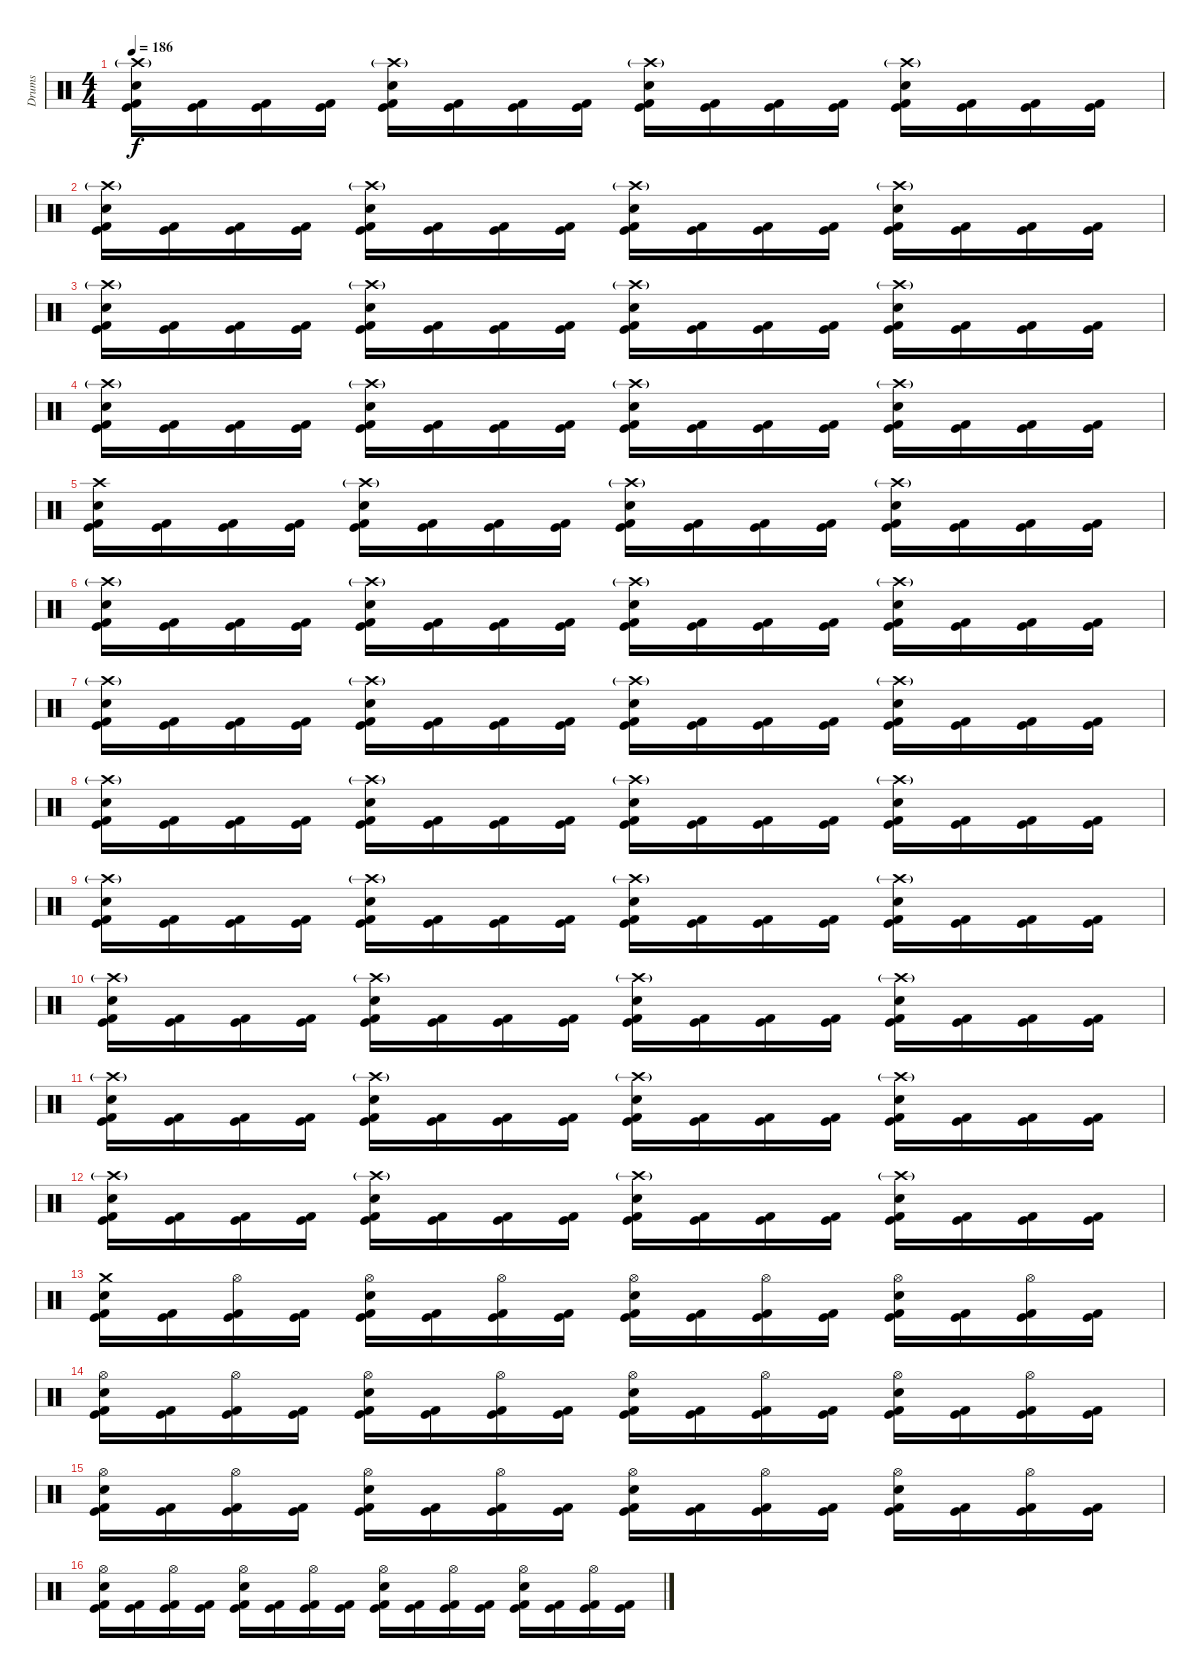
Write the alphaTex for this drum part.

\track ("Drums" "Drums") {instrument percussion}
\staff {score}
\articulation defaults
\ts (4 4)
\tempo 186
\clef neutral
\ks c
("Crash high (hit)"{g} "Electric Snare (hit)" "Kick (hit)" "Kick (hit) 2").16{dy f} ("Kick (hit)" "Kick (hit) 2").16 ("Kick (hit)" "Kick (hit) 2").16 ("Kick (hit)" "Kick (hit) 2").16 ("Crash high (hit)"{g} "Electric Snare (hit)" "Kick (hit)" "Kick (hit) 2").16 ("Kick (hit)" "Kick (hit) 2").16 ("Kick (hit)" "Kick (hit) 2").16 ("Kick (hit)" "Kick (hit) 2").16 ("Crash high (hit)"{g} "Electric Snare (hit)" "Kick (hit)" "Kick (hit) 2").16 ("Kick (hit)" "Kick (hit) 2").16 ("Kick (hit)" "Kick (hit) 2").16 ("Kick (hit)" "Kick (hit) 2").16 ("Crash high (hit)"{g} "Electric Snare (hit)" "Kick (hit)" "Kick (hit) 2").16 ("Kick (hit)" "Kick (hit) 2").16 ("Kick (hit)" "Kick (hit) 2").16 ("Kick (hit)" "Kick (hit) 2").16 |
("Crash high (hit)"{g} "Electric Snare (hit)" "Kick (hit)" "Kick (hit) 2").16 ("Kick (hit)" "Kick (hit) 2").16 ("Kick (hit)" "Kick (hit) 2").16 ("Kick (hit)" "Kick (hit) 2").16 ("Crash high (hit)"{g} "Electric Snare (hit)" "Kick (hit)" "Kick (hit) 2").16 ("Kick (hit)" "Kick (hit) 2").16 ("Kick (hit)" "Kick (hit) 2").16 ("Kick (hit)" "Kick (hit) 2").16 ("Crash high (hit)"{g} "Electric Snare (hit)" "Kick (hit)" "Kick (hit) 2").16 ("Kick (hit)" "Kick (hit) 2").16 ("Kick (hit)" "Kick (hit) 2").16 ("Kick (hit)" "Kick (hit) 2").16 ("Crash high (hit)"{g} "Electric Snare (hit)" "Kick (hit)" "Kick (hit) 2").16 ("Kick (hit)" "Kick (hit) 2").16 ("Kick (hit)" "Kick (hit) 2").16 ("Kick (hit)" "Kick (hit) 2").16 |
("Crash high (hit)"{g} "Electric Snare (hit)" "Kick (hit)" "Kick (hit) 2").16 ("Kick (hit)" "Kick (hit) 2").16 ("Kick (hit)" "Kick (hit) 2").16 ("Kick (hit)" "Kick (hit) 2").16 ("Crash high (hit)"{g} "Electric Snare (hit)" "Kick (hit)" "Kick (hit) 2").16 ("Kick (hit)" "Kick (hit) 2").16 ("Kick (hit)" "Kick (hit) 2").16 ("Kick (hit)" "Kick (hit) 2").16 ("Crash high (hit)"{g} "Electric Snare (hit)" "Kick (hit)" "Kick (hit) 2").16 ("Kick (hit)" "Kick (hit) 2").16 ("Kick (hit)" "Kick (hit) 2").16 ("Kick (hit)" "Kick (hit) 2").16 ("Crash high (hit)"{g} "Electric Snare (hit)" "Kick (hit)" "Kick (hit) 2").16 ("Kick (hit)" "Kick (hit) 2").16 ("Kick (hit)" "Kick (hit) 2").16 ("Kick (hit)" "Kick (hit) 2").16 |
("Crash high (hit)"{g} "Electric Snare (hit)" "Kick (hit)" "Kick (hit) 2").16 ("Kick (hit)" "Kick (hit) 2").16 ("Kick (hit)" "Kick (hit) 2").16 ("Kick (hit)" "Kick (hit) 2").16 ("Crash high (hit)"{g} "Electric Snare (hit)" "Kick (hit)" "Kick (hit) 2").16 ("Kick (hit)" "Kick (hit) 2").16 ("Kick (hit)" "Kick (hit) 2").16 ("Kick (hit)" "Kick (hit) 2").16 ("Crash high (hit)"{g} "Electric Snare (hit)" "Kick (hit)" "Kick (hit) 2").16 ("Kick (hit)" "Kick (hit) 2").16 ("Kick (hit)" "Kick (hit) 2").16 ("Kick (hit)" "Kick (hit) 2").16 ("Crash high (hit)"{g} "Electric Snare (hit)" "Kick (hit)" "Kick (hit) 2").16 ("Kick (hit)" "Kick (hit) 2").16 ("Kick (hit)" "Kick (hit) 2").16 ("Kick (hit)" "Kick (hit) 2").16 |
("Crash high (hit)" "Electric Snare (hit)" "Kick (hit)" "Kick (hit) 2").16 ("Kick (hit)" "Kick (hit) 2").16 ("Kick (hit)" "Kick (hit) 2").16 ("Kick (hit)" "Kick (hit) 2").16 ("Crash high (hit)"{g} "Electric Snare (hit)" "Kick (hit)" "Kick (hit) 2").16 ("Kick (hit)" "Kick (hit) 2").16 ("Kick (hit)" "Kick (hit) 2").16 ("Kick (hit)" "Kick (hit) 2").16 ("Crash high (hit)"{g} "Electric Snare (hit)" "Kick (hit)" "Kick (hit) 2").16 ("Kick (hit)" "Kick (hit) 2").16 ("Kick (hit)" "Kick (hit) 2").16 ("Kick (hit)" "Kick (hit) 2").16 ("Crash high (hit)"{g} "Electric Snare (hit)" "Kick (hit)" "Kick (hit) 2").16 ("Kick (hit)" "Kick (hit) 2").16 ("Kick (hit)" "Kick (hit) 2").16 ("Kick (hit)" "Kick (hit) 2").16 |
("Crash high (hit)"{g} "Electric Snare (hit)" "Kick (hit)" "Kick (hit) 2").16 ("Kick (hit)" "Kick (hit) 2").16 ("Kick (hit)" "Kick (hit) 2").16 ("Kick (hit)" "Kick (hit) 2").16 ("Crash high (hit)"{g} "Electric Snare (hit)" "Kick (hit)" "Kick (hit) 2").16 ("Kick (hit)" "Kick (hit) 2").16 ("Kick (hit)" "Kick (hit) 2").16 ("Kick (hit)" "Kick (hit) 2").16 ("Crash high (hit)"{g} "Electric Snare (hit)" "Kick (hit)" "Kick (hit) 2").16 ("Kick (hit)" "Kick (hit) 2").16 ("Kick (hit)" "Kick (hit) 2").16 ("Kick (hit)" "Kick (hit) 2").16 ("Crash high (hit)"{g} "Electric Snare (hit)" "Kick (hit)" "Kick (hit) 2").16 ("Kick (hit)" "Kick (hit) 2").16 ("Kick (hit)" "Kick (hit) 2").16 ("Kick (hit)" "Kick (hit) 2").16 |
("Crash high (hit)"{g} "Electric Snare (hit)" "Kick (hit)" "Kick (hit) 2").16 ("Kick (hit)" "Kick (hit) 2").16 ("Kick (hit)" "Kick (hit) 2").16 ("Kick (hit)" "Kick (hit) 2").16 ("Crash high (hit)"{g} "Electric Snare (hit)" "Kick (hit)" "Kick (hit) 2").16 ("Kick (hit)" "Kick (hit) 2").16 ("Kick (hit)" "Kick (hit) 2").16 ("Kick (hit)" "Kick (hit) 2").16 ("Crash high (hit)"{g} "Electric Snare (hit)" "Kick (hit)" "Kick (hit) 2").16 ("Kick (hit)" "Kick (hit) 2").16 ("Kick (hit)" "Kick (hit) 2").16 ("Kick (hit)" "Kick (hit) 2").16 ("Crash high (hit)"{g} "Electric Snare (hit)" "Kick (hit)" "Kick (hit) 2").16 ("Kick (hit)" "Kick (hit) 2").16 ("Kick (hit)" "Kick (hit) 2").16 ("Kick (hit)" "Kick (hit) 2").16 |
("Crash high (hit)"{g} "Electric Snare (hit)" "Kick (hit)" "Kick (hit) 2").16 ("Kick (hit)" "Kick (hit) 2").16 ("Kick (hit)" "Kick (hit) 2").16 ("Kick (hit)" "Kick (hit) 2").16 ("Crash high (hit)"{g} "Electric Snare (hit)" "Kick (hit)" "Kick (hit) 2").16 ("Kick (hit)" "Kick (hit) 2").16 ("Kick (hit)" "Kick (hit) 2").16 ("Kick (hit)" "Kick (hit) 2").16 ("Crash high (hit)"{g} "Electric Snare (hit)" "Kick (hit)" "Kick (hit) 2").16 ("Kick (hit)" "Kick (hit) 2").16 ("Kick (hit)" "Kick (hit) 2").16 ("Kick (hit)" "Kick (hit) 2").16 ("Crash high (hit)"{g} "Electric Snare (hit)" "Kick (hit)" "Kick (hit) 2").16 ("Kick (hit)" "Kick (hit) 2").16 ("Kick (hit)" "Kick (hit) 2").16 ("Kick (hit)" "Kick (hit) 2").16 |
("Crash high (hit)"{g} "Electric Snare (hit)" "Kick (hit)" "Kick (hit) 2").16 ("Kick (hit)" "Kick (hit) 2").16 ("Kick (hit)" "Kick (hit) 2").16 ("Kick (hit)" "Kick (hit) 2").16 ("Crash high (hit)"{g} "Electric Snare (hit)" "Kick (hit)" "Kick (hit) 2").16 ("Kick (hit)" "Kick (hit) 2").16 ("Kick (hit)" "Kick (hit) 2").16 ("Kick (hit)" "Kick (hit) 2").16 ("Crash high (hit)"{g} "Electric Snare (hit)" "Kick (hit)" "Kick (hit) 2").16 ("Kick (hit)" "Kick (hit) 2").16 ("Kick (hit)" "Kick (hit) 2").16 ("Kick (hit)" "Kick (hit) 2").16 ("Crash high (hit)"{g} "Electric Snare (hit)" "Kick (hit)" "Kick (hit) 2").16 ("Kick (hit)" "Kick (hit) 2").16 ("Kick (hit)" "Kick (hit) 2").16 ("Kick (hit)" "Kick (hit) 2").16 |
("Crash high (hit)"{g} "Electric Snare (hit)" "Kick (hit)" "Kick (hit) 2").16 ("Kick (hit)" "Kick (hit) 2").16 ("Kick (hit)" "Kick (hit) 2").16 ("Kick (hit)" "Kick (hit) 2").16 ("Crash high (hit)"{g} "Electric Snare (hit)" "Kick (hit)" "Kick (hit) 2").16 ("Kick (hit)" "Kick (hit) 2").16 ("Kick (hit)" "Kick (hit) 2").16 ("Kick (hit)" "Kick (hit) 2").16 ("Crash high (hit)"{g} "Electric Snare (hit)" "Kick (hit)" "Kick (hit) 2").16 ("Kick (hit)" "Kick (hit) 2").16 ("Kick (hit)" "Kick (hit) 2").16 ("Kick (hit)" "Kick (hit) 2").16 ("Crash high (hit)"{g} "Electric Snare (hit)" "Kick (hit)" "Kick (hit) 2").16 ("Kick (hit)" "Kick (hit) 2").16 ("Kick (hit)" "Kick (hit) 2").16 ("Kick (hit)" "Kick (hit) 2").16 |
("Crash high (hit)"{g} "Electric Snare (hit)" "Kick (hit)" "Kick (hit) 2").16 ("Kick (hit)" "Kick (hit) 2").16 ("Kick (hit)" "Kick (hit) 2").16 ("Kick (hit)" "Kick (hit) 2").16 ("Crash high (hit)"{g} "Electric Snare (hit)" "Kick (hit)" "Kick (hit) 2").16 ("Kick (hit)" "Kick (hit) 2").16 ("Kick (hit)" "Kick (hit) 2").16 ("Kick (hit)" "Kick (hit) 2").16 ("Crash high (hit)"{g} "Electric Snare (hit)" "Kick (hit)" "Kick (hit) 2").16 ("Kick (hit)" "Kick (hit) 2").16 ("Kick (hit)" "Kick (hit) 2").16 ("Kick (hit)" "Kick (hit) 2").16 ("Crash high (hit)"{g} "Electric Snare (hit)" "Kick (hit)" "Kick (hit) 2").16 ("Kick (hit)" "Kick (hit) 2").16 ("Kick (hit)" "Kick (hit) 2").16 ("Kick (hit)" "Kick (hit) 2").16 |
("Crash high (hit)"{g} "Electric Snare (hit)" "Kick (hit)" "Kick (hit) 2").16 ("Kick (hit)" "Kick (hit) 2").16 ("Kick (hit)" "Kick (hit) 2").16 ("Kick (hit)" "Kick (hit) 2").16 ("Crash high (hit)"{g} "Electric Snare (hit)" "Kick (hit)" "Kick (hit) 2").16 ("Kick (hit)" "Kick (hit) 2").16 ("Kick (hit)" "Kick (hit) 2").16 ("Kick (hit)" "Kick (hit) 2").16 ("Crash high (hit)"{g} "Electric Snare (hit)" "Kick (hit)" "Kick (hit) 2").16 ("Kick (hit)" "Kick (hit) 2").16 ("Kick (hit)" "Kick (hit) 2").16 ("Kick (hit)" "Kick (hit) 2").16 ("Crash high (hit)"{g} "Electric Snare (hit)" "Kick (hit)" "Kick (hit) 2").16 ("Kick (hit)" "Kick (hit) 2").16 ("Kick (hit)" "Kick (hit) 2").16 ("Kick (hit)" "Kick (hit) 2").16 |
("Crash medium (hit)" "Electric Snare (hit)" "Kick (hit)" "Kick (hit) 2").16 ("Kick (hit)" "Kick (hit) 2").16 ("Hi-Hat (open)" "Kick (hit)" "Kick (hit) 2").16 ("Kick (hit)" "Kick (hit) 2").16 ("Hi-Hat (open)" "Electric Snare (hit)" "Kick (hit)" "Kick (hit) 2").16 ("Kick (hit)" "Kick (hit) 2").16 ("Hi-Hat (open)" "Kick (hit)" "Kick (hit) 2").16 ("Kick (hit)" "Kick (hit) 2").16 ("Hi-Hat (open)" "Electric Snare (hit)" "Kick (hit)" "Kick (hit) 2").16 ("Kick (hit)" "Kick (hit) 2").16 ("Hi-Hat (open)" "Kick (hit)" "Kick (hit) 2").16 ("Kick (hit)" "Kick (hit) 2").16 ("Hi-Hat (open)" "Electric Snare (hit)" "Kick (hit)" "Kick (hit) 2").16 ("Kick (hit)" "Kick (hit) 2").16 ("Hi-Hat (open)" "Kick (hit)" "Kick (hit) 2").16 ("Kick (hit)" "Kick (hit) 2").16 |
("Hi-Hat (open)" "Electric Snare (hit)" "Kick (hit)" "Kick (hit) 2").16 ("Kick (hit)" "Kick (hit) 2").16 ("Hi-Hat (open)" "Kick (hit)" "Kick (hit) 2").16 ("Kick (hit)" "Kick (hit) 2").16 ("Hi-Hat (open)" "Electric Snare (hit)" "Kick (hit)" "Kick (hit) 2").16 ("Kick (hit)" "Kick (hit) 2").16 ("Hi-Hat (open)" "Kick (hit)" "Kick (hit) 2").16 ("Kick (hit)" "Kick (hit) 2").16 ("Hi-Hat (open)" "Electric Snare (hit)" "Kick (hit)" "Kick (hit) 2").16 ("Kick (hit)" "Kick (hit) 2").16 ("Hi-Hat (open)" "Kick (hit)" "Kick (hit) 2").16 ("Kick (hit)" "Kick (hit) 2").16 ("Hi-Hat (open)" "Electric Snare (hit)" "Kick (hit)" "Kick (hit) 2").16 ("Kick (hit)" "Kick (hit) 2").16 ("Hi-Hat (open)" "Kick (hit)" "Kick (hit) 2").16 ("Kick (hit)" "Kick (hit) 2").16 |
("Hi-Hat (open)" "Electric Snare (hit)" "Kick (hit)" "Kick (hit) 2").16 ("Kick (hit)" "Kick (hit) 2").16 ("Hi-Hat (open)" "Kick (hit)" "Kick (hit) 2").16 ("Kick (hit)" "Kick (hit) 2").16 ("Hi-Hat (open)" "Electric Snare (hit)" "Kick (hit)" "Kick (hit) 2").16 ("Kick (hit)" "Kick (hit) 2").16 ("Hi-Hat (open)" "Kick (hit)" "Kick (hit) 2").16 ("Kick (hit)" "Kick (hit) 2").16 ("Hi-Hat (open)" "Electric Snare (hit)" "Kick (hit)" "Kick (hit) 2").16 ("Kick (hit)" "Kick (hit) 2").16 ("Hi-Hat (open)" "Kick (hit)" "Kick (hit) 2").16 ("Kick (hit)" "Kick (hit) 2").16 ("Hi-Hat (open)" "Electric Snare (hit)" "Kick (hit)" "Kick (hit) 2").16 ("Kick (hit)" "Kick (hit) 2").16 ("Hi-Hat (open)" "Kick (hit)" "Kick (hit) 2").16 ("Kick (hit)" "Kick (hit) 2").16 |
("Hi-Hat (open)" "Electric Snare (hit)" "Kick (hit)" "Kick (hit) 2").16 ("Kick (hit)" "Kick (hit) 2").16 ("Hi-Hat (open)" "Kick (hit)" "Kick (hit) 2").16 ("Kick (hit)" "Kick (hit) 2").16 ("Hi-Hat (open)" "Electric Snare (hit)" "Kick (hit)" "Kick (hit) 2").16 ("Kick (hit)" "Kick (hit) 2").16 ("Hi-Hat (open)" "Kick (hit)" "Kick (hit) 2").16 ("Kick (hit)" "Kick (hit) 2").16 ("Hi-Hat (open)" "Electric Snare (hit)" "Kick (hit)" "Kick (hit) 2").16 ("Kick (hit)" "Kick (hit) 2").16 ("Hi-Hat (open)" "Kick (hit)" "Kick (hit) 2").16 ("Kick (hit)" "Kick (hit) 2").16 ("Hi-Hat (open)" "Electric Snare (hit)" "Kick (hit)" "Kick (hit) 2").16 ("Kick (hit)" "Kick (hit) 2").16 ("Hi-Hat (open)" "Kick (hit)" "Kick (hit) 2").16 ("Kick (hit)" "Kick (hit) 2").16
